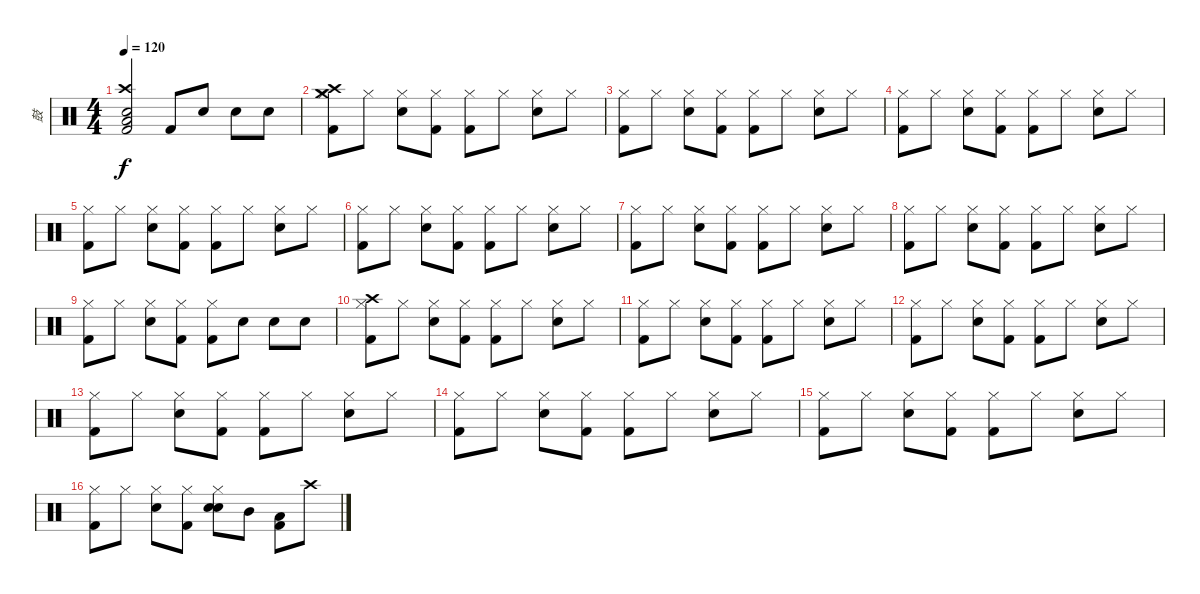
\track ("鼓" "鼓") {instrument percussion}
\staff {score}
\articulation defaults
\ts (4 4)
\tempo 120
\clef neutral
\ks c
("Snare (hit) 2" "Crash high (hit)" "Low Tom (hit)" "Kick (hit) 2").2{dy f} "Kick (hit) 2".8 "Snare (hit) 2".8 "Snare (hit) 2".8 "Snare (hit) 2".8 |
("Hi-Hat (closed)" "Crash high (hit)" "Crash medium (hit)" "Kick (hit) 2").8 "Hi-Hat (closed)".8 ("Hi-Hat (closed)" "Snare (hit) 2").8 ("Hi-Hat (closed)" "Kick (hit) 2").8 ("Hi-Hat (closed)" "Kick (hit) 2").8 "Hi-Hat (closed)".8 ("Hi-Hat (closed)" "Snare (hit) 2").8 "Hi-Hat (closed)".8 |
("Hi-Hat (closed)" "Kick (hit) 2").8 "Hi-Hat (closed)".8 ("Hi-Hat (closed)" "Snare (hit) 2").8 ("Hi-Hat (closed)" "Kick (hit) 2").8 ("Hi-Hat (closed)" "Kick (hit) 2").8 "Hi-Hat (closed)".8 ("Hi-Hat (closed)" "Snare (hit) 2").8 "Hi-Hat (closed)".8 |
("Hi-Hat (closed)" "Kick (hit) 2").8 "Hi-Hat (closed)".8 ("Hi-Hat (closed)" "Snare (hit) 2").8 ("Hi-Hat (closed)" "Kick (hit) 2").8 ("Hi-Hat (closed)" "Kick (hit) 2").8 "Hi-Hat (closed)".8 ("Hi-Hat (closed)" "Snare (hit) 2").8 "Hi-Hat (closed)".8 |
("Hi-Hat (closed)" "Kick (hit) 2").8 "Hi-Hat (closed)".8 ("Hi-Hat (closed)" "Snare (hit) 2").8 ("Hi-Hat (closed)" "Kick (hit) 2").8 ("Hi-Hat (closed)" "Kick (hit) 2").8 "Hi-Hat (closed)".8 ("Hi-Hat (closed)" "Snare (hit) 2").8 "Hi-Hat (closed)".8 |
("Hi-Hat (closed)" "Kick (hit) 2").8 "Hi-Hat (closed)".8 ("Hi-Hat (closed)" "Snare (hit) 2").8 ("Hi-Hat (closed)" "Kick (hit) 2").8 ("Hi-Hat (closed)" "Kick (hit) 2").8 "Hi-Hat (closed)".8 ("Hi-Hat (closed)" "Snare (hit) 2").8 "Hi-Hat (closed)".8 |
("Hi-Hat (closed)" "Kick (hit) 2").8 "Hi-Hat (closed)".8 ("Hi-Hat (closed)" "Snare (hit) 2").8 ("Hi-Hat (closed)" "Kick (hit) 2").8 ("Hi-Hat (closed)" "Kick (hit) 2").8 "Hi-Hat (closed)".8 ("Hi-Hat (closed)" "Snare (hit) 2").8 "Hi-Hat (closed)".8 |
("Hi-Hat (closed)" "Kick (hit) 2").8 "Hi-Hat (closed)".8 ("Hi-Hat (closed)" "Snare (hit) 2").8 ("Hi-Hat (closed)" "Kick (hit) 2").8 ("Hi-Hat (closed)" "Kick (hit) 2").8 "Hi-Hat (closed)".8 ("Hi-Hat (closed)" "Snare (hit) 2").8 "Hi-Hat (closed)".8 |
("Hi-Hat (closed)" "Kick (hit) 2").8 "Hi-Hat (closed)".8 ("Hi-Hat (closed)" "Snare (hit) 2").8 ("Hi-Hat (closed)" "Kick (hit) 2").8 ("Hi-Hat (closed)" "Kick (hit) 2").8 "Snare (hit) 2".8 "Snare (hit) 2".8 "Snare (hit) 2".8 |
("Hi-Hat (closed)" "Crash high (hit)" "Kick (hit) 2").8 "Hi-Hat (closed)".8 ("Hi-Hat (closed)" "Snare (hit) 2").8 ("Hi-Hat (closed)" "Kick (hit) 2").8 ("Hi-Hat (closed)" "Kick (hit) 2").8 "Hi-Hat (closed)".8 ("Hi-Hat (closed)" "Snare (hit) 2").8 "Hi-Hat (closed)".8 |
("Hi-Hat (closed)" "Kick (hit) 2").8 "Hi-Hat (closed)".8 ("Hi-Hat (closed)" "Snare (hit) 2").8 ("Hi-Hat (closed)" "Kick (hit) 2").8 ("Hi-Hat (closed)" "Kick (hit) 2").8 "Hi-Hat (closed)".8 ("Hi-Hat (closed)" "Snare (hit) 2").8 "Hi-Hat (closed)".8 |
("Hi-Hat (closed)" "Kick (hit) 2").8 "Hi-Hat (closed)".8 ("Hi-Hat (closed)" "Snare (hit) 2").8 ("Hi-Hat (closed)" "Kick (hit) 2").8 ("Hi-Hat (closed)" "Kick (hit) 2").8 "Hi-Hat (closed)".8 ("Hi-Hat (closed)" "Snare (hit) 2").8 "Hi-Hat (closed)".8 |
("Hi-Hat (closed)" "Kick (hit) 2").8 "Hi-Hat (closed)".8 ("Hi-Hat (closed)" "Snare (hit) 2").8 ("Hi-Hat (closed)" "Kick (hit) 2").8 ("Hi-Hat (closed)" "Kick (hit) 2").8 "Hi-Hat (closed)".8 ("Hi-Hat (closed)" "Snare (hit) 2").8 "Hi-Hat (closed)".8 |
("Hi-Hat (closed)" "Kick (hit) 2").8 "Hi-Hat (closed)".8 ("Hi-Hat (closed)" "Snare (hit) 2").8 ("Hi-Hat (closed)" "Kick (hit) 2").8 ("Hi-Hat (closed)" "Kick (hit) 2").8 "Hi-Hat (closed)".8 ("Hi-Hat (closed)" "Snare (hit) 2").8 "Hi-Hat (closed)".8 |
("Hi-Hat (closed)" "Kick (hit) 2").8 "Hi-Hat (closed)".8 ("Hi-Hat (closed)" "Snare (hit) 2").8 ("Hi-Hat (closed)" "Kick (hit) 2").8 ("Hi-Hat (closed)" "Kick (hit) 2").8 "Hi-Hat (closed)".8 ("Hi-Hat (closed)" "Snare (hit) 2").8 "Hi-Hat (closed)".8 |
("Hi-Hat (closed)" "Kick (hit) 2").8 "Hi-Hat (closed)".8 ("Hi-Hat (closed)" "Snare (hit) 2").8 ("Hi-Hat (closed)" "Kick (hit) 2").8 ("Hi-Hat (closed)" "Snare (hit) 2" "Electric Snare (hit)").8 "Mid Tom (hit)".8 ("Low Tom (hit)" "Kick (hit) 2").8 "Crash high (hit)".8
